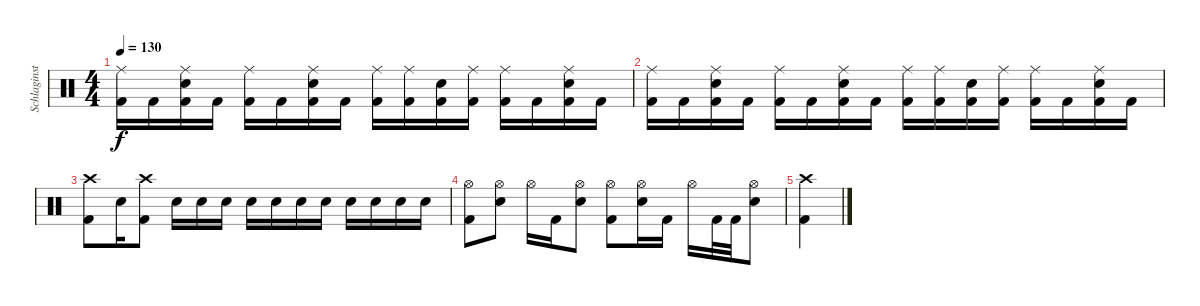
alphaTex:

\track ("Schlaginstrumente - Auswahl" "Schlaginst") {instrument percussion}
\staff {score}
\articulation defaults
\ts (4 4)
\tempo 130
\clef neutral
\ks c
("Ride (middle)" "Kick (hit) 2").16{dy f} "Kick (hit) 2".16 ("Ride (middle)" "Snare (hit) 2" "Kick (hit) 2").16 "Kick (hit) 2".16 ("Ride (middle)" "Kick (hit) 2").16 "Kick (hit) 2".16 ("Ride (middle)" "Snare (hit) 2" "Kick (hit) 2").16 "Kick (hit) 2".16 ("Ride (middle)" "Kick (hit) 2").16 ("Ride (middle)" "Kick (hit) 2").16 ("Snare (hit) 2" "Kick (hit) 2").16 ("Ride (middle)" "Kick (hit) 2").16 ("Ride (middle)" "Kick (hit) 2").16 "Kick (hit) 2".16 ("Ride (middle)" "Snare (hit) 2" "Kick (hit) 2").16 "Kick (hit) 2".16 |
("Ride (middle)" "Kick (hit) 2").16 "Kick (hit) 2".16 ("Ride (middle)" "Snare (hit) 2" "Kick (hit) 2").16 "Kick (hit) 2".16 ("Ride (middle)" "Kick (hit) 2").16 "Kick (hit) 2".16 ("Ride (middle)" "Snare (hit) 2" "Kick (hit) 2").16 "Kick (hit) 2".16 ("Ride (middle)" "Kick (hit) 2").16 ("Ride (middle)" "Kick (hit) 2").16 ("Snare (hit) 2" "Kick (hit) 2").16 ("Ride (middle)" "Kick (hit) 2").16 ("Ride (middle)" "Kick (hit) 2").16 "Kick (hit) 2".16 ("Ride (middle)" "Snare (hit) 2" "Kick (hit) 2").16 "Kick (hit) 2".16 |
("Crash high (hit)" "Kick (hit) 2").8 "Snare (hit) 2".16 ("Crash high (hit)" "Kick (hit) 2").8 "Snare (hit) 2".16 "Snare (hit) 2".16 "Snare (hit) 2".16 "Snare (hit) 2".16 "Snare (hit) 2".16 "Snare (hit) 2".16 "Snare (hit) 2".16 "Snare (hit) 2".16 "Snare (hit) 2".16 "Snare (hit) 2".16 "Snare (hit) 2".16 |
("Hi-Hat (open)" "Kick (hit) 2").8 ("Hi-Hat (open)" "Snare (hit) 2").8 "Hi-Hat (open)".16 "Kick (hit) 2".16 ("Hi-Hat (open)" "Snare (hit) 2").8 ("Hi-Hat (open)" "Kick (hit) 2").8 ("Hi-Hat (open)" "Snare (hit) 2").16 "Kick (hit) 2".16 "Hi-Hat (open)".16 "Kick (hit) 2".32 "Kick (hit) 2".32 ("Hi-Hat (open)" "Snare (hit) 2").8 |
("Crash high (hit)" "Kick (hit) 2").4
